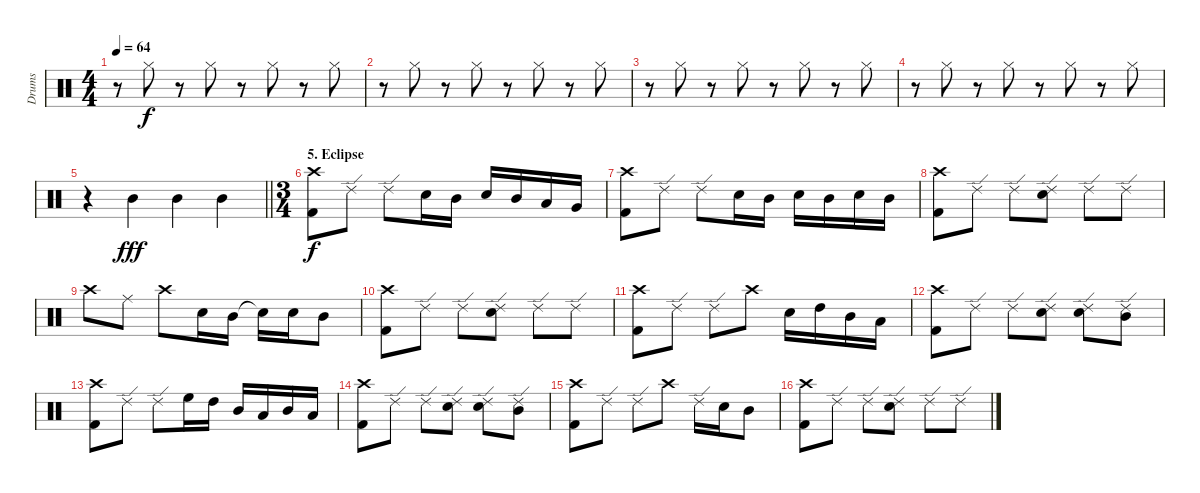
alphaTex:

\track ("Drums" "Drums") {instrument percussion}
\staff {score}
\articulation defaults
\ts (4 4)
\tempo 64
\clef neutral
\ks c
r.8{dy f} "Hi-Hat (closed)".8 r.8 "Hi-Hat (closed)".8 r.8 "Hi-Hat (closed)".8 r.8 "Hi-Hat (closed)".8 |
r.8 "Hi-Hat (closed)".8 r.8 "Hi-Hat (closed)".8 r.8 "Hi-Hat (closed)".8 r.8 "Hi-Hat (closed)".8 |
r.8 "Hi-Hat (closed)".8 r.8 "Hi-Hat (closed)".8 r.8 "Hi-Hat (closed)".8 r.8 "Hi-Hat (closed)".8 |
r.8 "Hi-Hat (closed)".8 r.8 "Hi-Hat (closed)".8 r.8 "Hi-Hat (closed)".8 r.8 "Hi-Hat (closed)".8 |
\barLineRight lightlight
r.4 "Mid Tom (hit)".4{dy fff} "Mid Tom (hit)".4 "Mid Tom (hit)".4 |
\ts (3 4)
\section ("" "5. Eclipse")
("Crash high (hit)" "Kick (hit) 2").8{dy f} "Ride (edge) 2".8 "Ride (edge) 2".8 "Snare (hit) 2".16 "Mid Tom (hit)".16 "Snare (hit) 2".16 "Mid Tom (hit)".16 "Low Tom (hit)".16 "Very Low Tom (hit)".16 |
("Crash high (hit)" "Kick (hit) 2").8 "Ride (edge) 2".8 "Ride (edge) 2".8 "Snare (hit) 2".16 "Mid Tom (hit)".16 "Snare (hit) 2".16 "Mid Tom (hit)".16 "Snare (hit) 2".16 "Mid Tom (hit)".16 |
("Crash high (hit)" "Kick (hit) 2").8 "Ride (edge) 2".8 "Ride (edge) 2".8 ("Snare (hit) 2" "Ride (edge) 2").8 "Ride (edge) 2".8 "Ride (edge) 2".8 |
"Crash high (hit)".8 "Ride (middle)".8 "Crash high (hit)".8 "Snare (hit) 2".16 "Mid Tom (hit)".16 "Snare (hit)"{t}.16 "Snare (hit) 2".16 "Mid Tom (hit)".8 |
("Crash high (hit)" "Kick (hit) 2").8 "Ride (edge) 2".8 "Ride (edge) 2".8 ("Snare (hit) 2" "Ride (edge) 2").8 "Ride (edge) 2".8 "Ride (edge) 2".8 |
("Crash high (hit)" "Kick (hit) 2").8 "Ride (edge) 2".8 "Ride (edge) 2".8 "Crash high (hit)".8 "Snare (hit) 2".16 "High Tom (hit)".16 "Mid Tom (hit)".16 "Low Tom (hit)".16 |
("Crash high (hit)" "Kick (hit) 2").8 "Ride (edge) 2".8 "Ride (edge) 2".8 ("Snare (hit) 2" "Ride (edge) 2").8 ("Snare (hit) 2" "Ride (edge) 2").8 ("Mid Tom (hit)" "Ride (edge) 2").8 |
("Crash high (hit)" "Kick (hit) 2").8 "Ride (edge) 2".8 "Ride (edge) 2".8 "High Floor Tom (hit)".16 "High Tom (hit)".16 "Mid Tom (hit)".16 "Low Tom (hit)".16 "Mid Tom (hit)".16 "Low Tom (hit)".16 |
("Crash high (hit)" "Kick (hit) 2").8 "Ride (edge) 2".8 "Ride (edge) 2".8 ("Ride (edge) 2" "Snare (hit) 2").8 ("Ride (edge) 2" "Snare (hit) 2").8 ("Ride (edge) 2" "Mid Tom (hit)").8 |
("Crash high (hit)" "Kick (hit) 2").8 "Ride (edge) 2".8 "Ride (edge) 2".8 "Crash high (hit)".8 "Ride (edge) 2".16 "Snare (hit) 2".16 "Mid Tom (hit)".8 |
("Crash high (hit)" "Kick (hit) 2").8 "Ride (edge) 2".8 "Ride (edge) 2".8 ("Ride (edge) 2" "Snare (hit) 2").8 "Ride (edge) 2".8 "Ride (edge) 2".8
